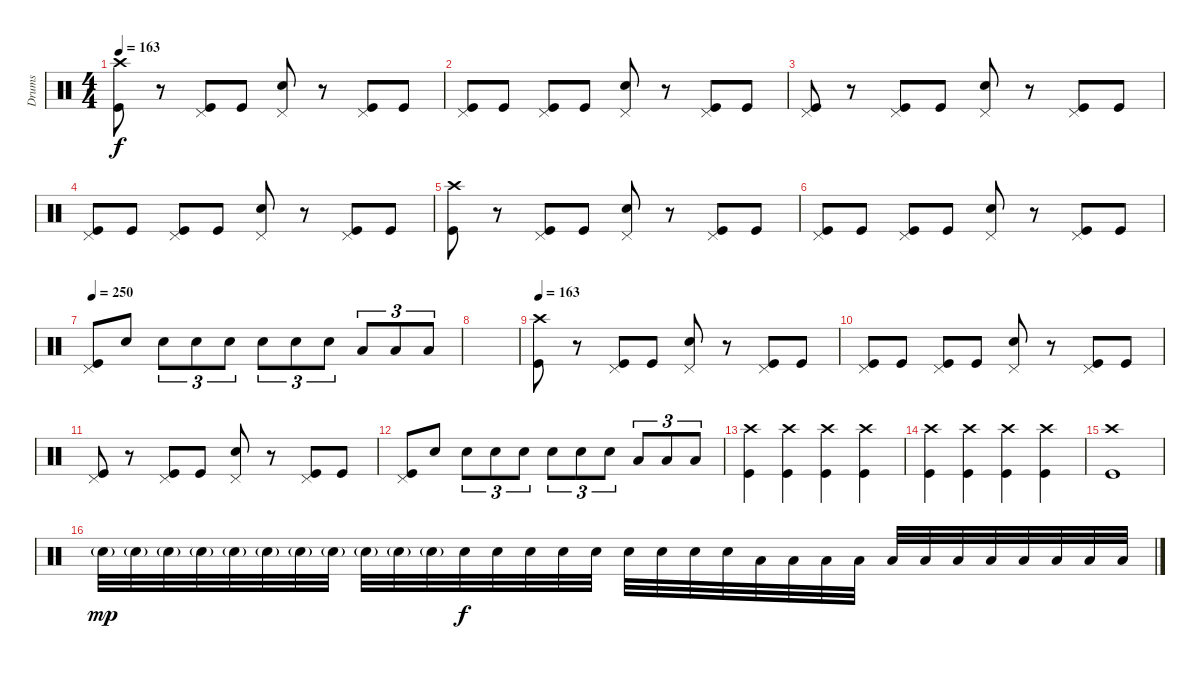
\track ("Drums" "Drums") {instrument percussion}
\staff {score}
\articulation defaults
\ts (4 4)
\tempo 163
\clef neutral
\ks c
("Crash high (hit)" "Kick (hit)").8{dy f} r.8 ("Pedal Hi-Hat (hit)" "Kick (hit)").8 "Kick (hit)".8 ("Pedal Hi-Hat (hit)" "Snare (hit) 2").8 r.8 ("Pedal Hi-Hat (hit)" "Kick (hit)").8 "Kick (hit)".8 |
("Pedal Hi-Hat (hit)" "Kick (hit)").8 "Kick (hit)".8 ("Pedal Hi-Hat (hit)" "Kick (hit)").8 "Kick (hit)".8 ("Pedal Hi-Hat (hit)" "Snare (hit) 2").8 r.8 ("Pedal Hi-Hat (hit)" "Kick (hit)").8 "Kick (hit)".8 |
("Pedal Hi-Hat (hit)" "Kick (hit)").8 r.8 ("Pedal Hi-Hat (hit)" "Kick (hit)").8 "Kick (hit)".8 ("Pedal Hi-Hat (hit)" "Snare (hit) 2").8 r.8 ("Pedal Hi-Hat (hit)" "Kick (hit)").8 "Kick (hit)".8 |
("Pedal Hi-Hat (hit)" "Kick (hit)").8 "Kick (hit)".8 ("Pedal Hi-Hat (hit)" "Kick (hit)").8 "Kick (hit)".8 ("Pedal Hi-Hat (hit)" "Snare (hit) 2").8 r.8 ("Pedal Hi-Hat (hit)" "Kick (hit)").8 "Kick (hit)".8 |
("Crash high (hit)" "Kick (hit)").8 r.8 ("Pedal Hi-Hat (hit)" "Kick (hit)").8 "Kick (hit)".8 ("Pedal Hi-Hat (hit)" "Snare (hit) 2").8 r.8 ("Pedal Hi-Hat (hit)" "Kick (hit)").8 "Kick (hit)".8 |
("Pedal Hi-Hat (hit)" "Kick (hit)").8 "Kick (hit)".8 ("Pedal Hi-Hat (hit)" "Kick (hit)").8 "Kick (hit)".8 ("Pedal Hi-Hat (hit)" "Snare (hit) 2").8 r.8 ("Pedal Hi-Hat (hit)" "Kick (hit)").8 "Kick (hit)".8 |
\tempo 250
("Pedal Hi-Hat (hit)" "Kick (hit)").8 "Snare (hit) 2".8 "Snare (hit) 2".8{tu (3 2)} "Snare (hit) 2".8{tu (3 2)} "Snare (hit) 2".8{tu (3 2)} "Snare (hit) 2".8{tu (3 2)} "Snare (hit) 2".8{tu (3 2)} "Snare (hit) 2".8{tu (3 2)} "Low Tom (hit)".8{tu (3 2)} "Low Tom (hit)".8{tu (3 2)} "Low Tom (hit)".8{tu (3 2)} |
|
\tempo 163
("Crash high (hit)" "Kick (hit)").8 r.8 ("Pedal Hi-Hat (hit)" "Kick (hit)").8 "Kick (hit)".8 ("Pedal Hi-Hat (hit)" "Snare (hit) 2").8 r.8 ("Pedal Hi-Hat (hit)" "Kick (hit)").8 "Kick (hit)".8 |
("Pedal Hi-Hat (hit)" "Kick (hit)").8 "Kick (hit)".8 ("Pedal Hi-Hat (hit)" "Kick (hit)").8 "Kick (hit)".8 ("Pedal Hi-Hat (hit)" "Snare (hit) 2").8 r.8 ("Pedal Hi-Hat (hit)" "Kick (hit)").8 "Kick (hit)".8 |
("Pedal Hi-Hat (hit)" "Kick (hit)").8 r.8 ("Pedal Hi-Hat (hit)" "Kick (hit)").8 "Kick (hit)".8 ("Pedal Hi-Hat (hit)" "Snare (hit) 2").8 r.8 ("Pedal Hi-Hat (hit)" "Kick (hit)").8 "Kick (hit)".8 |
("Pedal Hi-Hat (hit)" "Kick (hit)").8 "Snare (hit) 2".8 "Snare (hit) 2".8{tu (3 2)} "Snare (hit) 2".8{tu (3 2)} "Snare (hit) 2".8{tu (3 2)} "Snare (hit) 2".8{tu (3 2)} "Snare (hit) 2".8{tu (3 2)} "Snare (hit) 2".8{tu (3 2)} "Low Tom (hit)".8{tu (3 2)} "Low Tom (hit)".8{tu (3 2)} "Low Tom (hit)".8{tu (3 2)} |
("Crash high (hit)" "Kick (hit)").4 ("Crash high (hit)" "Kick (hit)").4 ("Crash high (hit)" "Kick (hit)").4 ("Crash high (hit)" "Kick (hit)").4 |
("Crash high (hit)" "Kick (hit)").4 ("Crash high (hit)" "Kick (hit)").4 ("Crash high (hit)" "Kick (hit)").4 ("Crash high (hit)" "Kick (hit)").4 |
("Crash high (hit)" "Kick (hit)").1 |
"Electric Snare (hit)"{g}.32{dy mp} "Electric Snare (hit)"{g}.32 "Electric Snare (hit)"{g}.32 "Electric Snare (hit)"{g}.32 "Electric Snare (hit)"{g}.32 "Electric Snare (hit)"{g}.32 "Electric Snare (hit)"{g}.32 "Electric Snare (hit)"{g}.32 "Electric Snare (hit)"{g}.32 "Electric Snare (hit)"{g}.32 "Electric Snare (hit)"{g}.32 "Electric Snare (hit)".32{dy f} "Electric Snare (hit)".32 "Electric Snare (hit)".32 "Electric Snare (hit)".32 "Electric Snare (hit)".32 "Electric Snare (hit)".32 "Electric Snare (hit)".32 "Electric Snare (hit)".32 "Electric Snare (hit)".32 "Low Tom (hit)".32 "Low Tom (hit)".32 "Low Tom (hit)".32 "Low Tom (hit)".32 "Low Tom (hit)".32 "Low Tom (hit)".32 "Low Tom (hit)".32 "Low Tom (hit)".32 "Low Tom (hit)".32 "Low Tom (hit)".32 "Low Tom (hit)".32 "Low Tom (hit)".32
